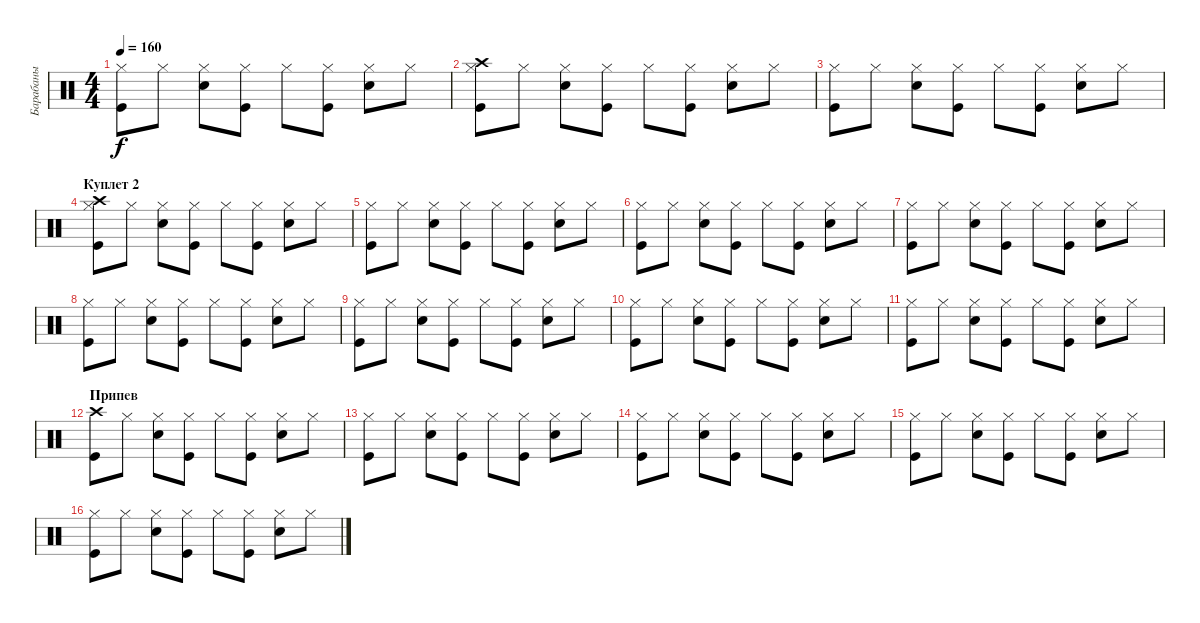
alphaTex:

\track ("Барабаны" "Барабаны") {instrument percussion}
\staff {score}
\articulation defaults
\ts (4 4)
\tempo 160
\clef neutral
\ks c
("Kick (hit)" "Hi-Hat (closed)").8{dy f} "Hi-Hat (closed)".8 ("Snare (hit) 2" "Hi-Hat (closed)").8 ("Kick (hit)" "Hi-Hat (closed)").8 "Hi-Hat (closed)".8 ("Kick (hit)" "Hi-Hat (closed)").8 ("Snare (hit) 2" "Hi-Hat (closed)").8 "Hi-Hat (closed)".8 |
("Kick (hit)" "Crash high (hit)" "Hi-Hat (closed)").8 "Hi-Hat (closed)".8 ("Snare (hit) 2" "Hi-Hat (closed)").8 ("Kick (hit)" "Hi-Hat (closed)").8 "Hi-Hat (closed)".8 ("Kick (hit)" "Hi-Hat (closed)").8 ("Snare (hit) 2" "Hi-Hat (closed)").8 "Hi-Hat (closed)".8 |
("Kick (hit)" "Hi-Hat (closed)").8 "Hi-Hat (closed)".8 ("Snare (hit) 2" "Hi-Hat (closed)").8 ("Kick (hit)" "Hi-Hat (closed)").8 "Hi-Hat (closed)".8 ("Kick (hit)" "Hi-Hat (closed)").8 ("Snare (hit) 2" "Hi-Hat (closed)").8 "Hi-Hat (closed)".8 |
\section ("" "Куплет 2")
("Kick (hit)" "Crash high (hit)" "Hi-Hat (closed)").8 "Hi-Hat (closed)".8 ("Snare (hit) 2" "Hi-Hat (closed)").8 ("Kick (hit)" "Hi-Hat (closed)").8 "Hi-Hat (closed)".8 ("Kick (hit)" "Hi-Hat (closed)").8 ("Snare (hit) 2" "Hi-Hat (closed)").8 "Hi-Hat (closed)".8 |
("Kick (hit)" "Hi-Hat (closed)").8 "Hi-Hat (closed)".8 ("Snare (hit) 2" "Hi-Hat (closed)").8 ("Kick (hit)" "Hi-Hat (closed)").8 "Hi-Hat (closed)".8 ("Kick (hit)" "Hi-Hat (closed)").8 ("Snare (hit) 2" "Hi-Hat (closed)").8 "Hi-Hat (closed)".8 |
("Kick (hit)" "Hi-Hat (closed)").8 "Hi-Hat (closed)".8 ("Snare (hit) 2" "Hi-Hat (closed)").8 ("Kick (hit)" "Hi-Hat (closed)").8 "Hi-Hat (closed)".8 ("Kick (hit)" "Hi-Hat (closed)").8 ("Snare (hit) 2" "Hi-Hat (closed)").8 "Hi-Hat (closed)".8 |
("Kick (hit)" "Hi-Hat (closed)").8 "Hi-Hat (closed)".8 ("Snare (hit) 2" "Hi-Hat (closed)").8 ("Kick (hit)" "Hi-Hat (closed)").8 "Hi-Hat (closed)".8 ("Kick (hit)" "Hi-Hat (closed)").8 ("Snare (hit) 2" "Hi-Hat (closed)").8 "Hi-Hat (closed)".8 |
("Kick (hit)" "Hi-Hat (closed)").8 "Hi-Hat (closed)".8 ("Snare (hit) 2" "Hi-Hat (closed)").8 ("Kick (hit)" "Hi-Hat (closed)").8 "Hi-Hat (closed)".8 ("Kick (hit)" "Hi-Hat (closed)").8 ("Snare (hit) 2" "Hi-Hat (closed)").8 "Hi-Hat (closed)".8 |
("Kick (hit)" "Hi-Hat (closed)").8 "Hi-Hat (closed)".8 ("Snare (hit) 2" "Hi-Hat (closed)").8 ("Kick (hit)" "Hi-Hat (closed)").8 "Hi-Hat (closed)".8 ("Kick (hit)" "Hi-Hat (closed)").8 ("Snare (hit) 2" "Hi-Hat (closed)").8 "Hi-Hat (closed)".8 |
("Kick (hit)" "Hi-Hat (closed)").8 "Hi-Hat (closed)".8 ("Snare (hit) 2" "Hi-Hat (closed)").8 ("Kick (hit)" "Hi-Hat (closed)").8 "Hi-Hat (closed)".8 ("Kick (hit)" "Hi-Hat (closed)").8 ("Snare (hit) 2" "Hi-Hat (closed)").8 "Hi-Hat (closed)".8 |
("Kick (hit)" "Hi-Hat (closed)").8 "Hi-Hat (closed)".8 ("Snare (hit) 2" "Hi-Hat (closed)").8 ("Kick (hit)" "Hi-Hat (closed)").8 "Hi-Hat (closed)".8 ("Kick (hit)" "Hi-Hat (closed)").8 ("Snare (hit) 2" "Hi-Hat (closed)").8 "Hi-Hat (closed)".8 |
\section ("" "Припев")
("Kick (hit)" "Crash high (hit)").8 "Hi-Hat (closed)".8 ("Snare (hit) 2" "Hi-Hat (closed)").8 ("Kick (hit)" "Hi-Hat (closed)").8 "Hi-Hat (closed)".8 ("Kick (hit)" "Hi-Hat (closed)").8 ("Snare (hit) 2" "Hi-Hat (closed)").8 "Hi-Hat (closed)".8 |
("Kick (hit)" "Hi-Hat (closed)").8 "Hi-Hat (closed)".8 ("Snare (hit) 2" "Hi-Hat (closed)").8 ("Kick (hit)" "Hi-Hat (closed)").8 "Hi-Hat (closed)".8 ("Kick (hit)" "Hi-Hat (closed)").8 ("Snare (hit) 2" "Hi-Hat (closed)").8 "Hi-Hat (closed)".8 |
("Kick (hit)" "Hi-Hat (closed)").8 "Hi-Hat (closed)".8 ("Snare (hit) 2" "Hi-Hat (closed)").8 ("Kick (hit)" "Hi-Hat (closed)").8 "Hi-Hat (closed)".8 ("Kick (hit)" "Hi-Hat (closed)").8 ("Snare (hit) 2" "Hi-Hat (closed)").8 "Hi-Hat (closed)".8 |
("Kick (hit)" "Hi-Hat (closed)").8 "Hi-Hat (closed)".8 ("Snare (hit) 2" "Hi-Hat (closed)").8 ("Kick (hit)" "Hi-Hat (closed)").8 "Hi-Hat (closed)".8 ("Kick (hit)" "Hi-Hat (closed)").8 ("Snare (hit) 2" "Hi-Hat (closed)").8 "Hi-Hat (closed)".8 |
("Kick (hit)" "Hi-Hat (closed)").8 "Hi-Hat (closed)".8 ("Snare (hit) 2" "Hi-Hat (closed)").8 ("Kick (hit)" "Hi-Hat (closed)").8 "Hi-Hat (closed)".8 ("Kick (hit)" "Hi-Hat (closed)").8 ("Snare (hit) 2" "Hi-Hat (closed)").8 "Hi-Hat (closed)".8
